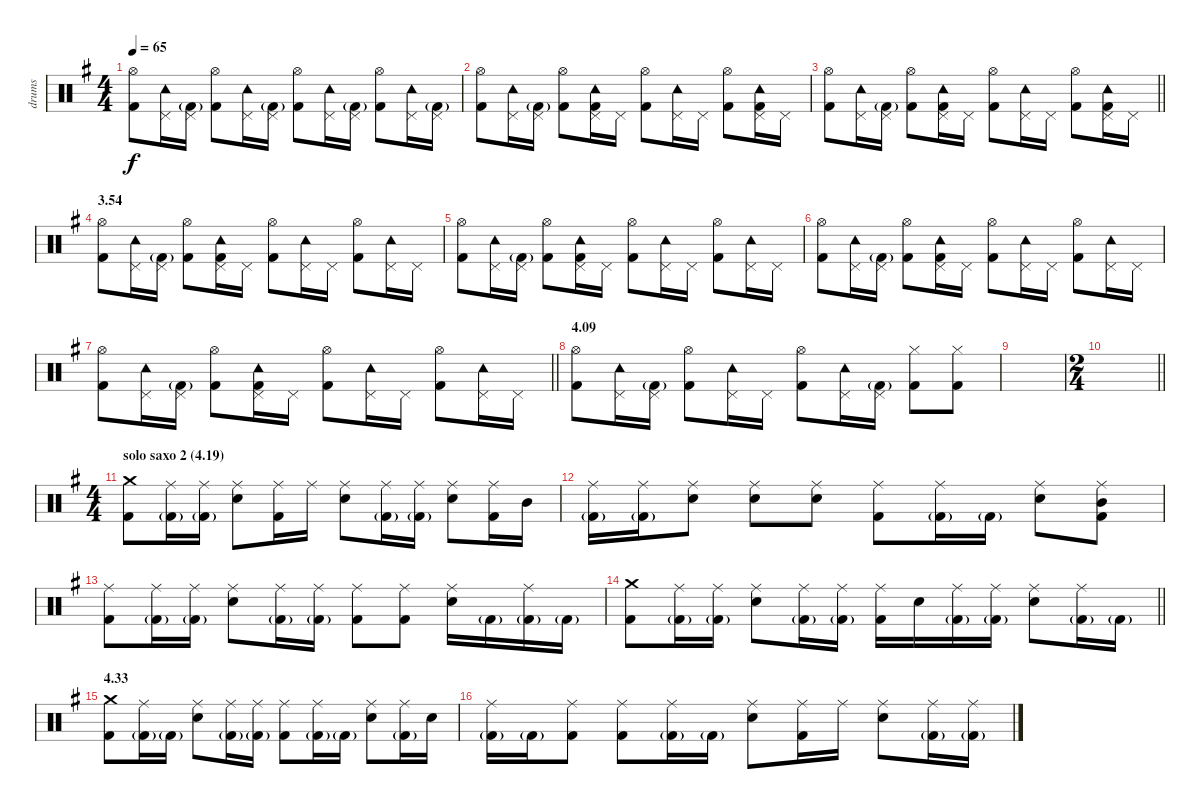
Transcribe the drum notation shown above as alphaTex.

\track ("drums" "drums") {instrument percussion}
\staff {score}
\articulation defaults
\ts (4 4)
\tempo 65
\clef neutral
\ks g
("Hi-Hat (open)" "Kick (hit) 2").8{dy f} ("Pedal Hi-Hat (hit)" "Tambourine (hit)").16 ("Pedal Hi-Hat (hit)" "Kick (hit) 2"{g}).16 ("Hi-Hat (open)" "Kick (hit) 2").8 ("Pedal Hi-Hat (hit)" "Tambourine (hit)").16 ("Pedal Hi-Hat (hit)" "Kick (hit) 2"{g}).16 ("Hi-Hat (open)" "Kick (hit) 2").8 ("Pedal Hi-Hat (hit)" "Tambourine (hit)").16 ("Pedal Hi-Hat (hit)" "Kick (hit) 2"{g}).16 ("Hi-Hat (open)" "Kick (hit) 2").8 ("Pedal Hi-Hat (hit)" "Tambourine (hit)").16 ("Pedal Hi-Hat (hit)" "Kick (hit) 2"{g}).16 |
("Hi-Hat (open)" "Kick (hit) 2").8 ("Pedal Hi-Hat (hit)" "Tambourine (hit)").16 ("Pedal Hi-Hat (hit)" "Kick (hit) 2"{g}).16 ("Hi-Hat (open)" "Kick (hit) 2").8 ("Pedal Hi-Hat (hit)" "Tambourine (hit)" "Kick (hit) 2").16 "Pedal Hi-Hat (hit)".16 ("Hi-Hat (open)" "Kick (hit) 2").8 ("Pedal Hi-Hat (hit)" "Tambourine (hit)").16 "Pedal Hi-Hat (hit)".16 ("Hi-Hat (open)" "Kick (hit) 2").8 ("Pedal Hi-Hat (hit)" "Tambourine (hit)" "Kick (hit) 2").16 "Pedal Hi-Hat (hit)".16 |
\barLineRight lightlight
("Hi-Hat (open)" "Kick (hit) 2").8 ("Pedal Hi-Hat (hit)" "Tambourine (hit)").16 ("Pedal Hi-Hat (hit)" "Kick (hit) 2"{g}).16 ("Hi-Hat (open)" "Kick (hit) 2").8 ("Pedal Hi-Hat (hit)" "Tambourine (hit)" "Kick (hit) 2").16 "Pedal Hi-Hat (hit)".16 ("Hi-Hat (open)" "Kick (hit) 2").8 ("Pedal Hi-Hat (hit)" "Tambourine (hit)").16 "Pedal Hi-Hat (hit)".16 ("Hi-Hat (open)" "Kick (hit) 2").8 ("Pedal Hi-Hat (hit)" "Tambourine (hit)" "Kick (hit) 2").16 "Pedal Hi-Hat (hit)".16 |
\section ("" "3.54")
("Hi-Hat (open)" "Kick (hit) 2").8 ("Pedal Hi-Hat (hit)" "Tambourine (hit)").16 ("Pedal Hi-Hat (hit)" "Kick (hit) 2"{g}).16 ("Hi-Hat (open)" "Kick (hit) 2").8 ("Pedal Hi-Hat (hit)" "Tambourine (hit)" "Kick (hit) 2").16 "Pedal Hi-Hat (hit)".16 ("Hi-Hat (open)" "Kick (hit) 2").8 ("Pedal Hi-Hat (hit)" "Tambourine (hit)").16 "Pedal Hi-Hat (hit)".16 ("Hi-Hat (open)" "Kick (hit) 2").8 ("Pedal Hi-Hat (hit)" "Tambourine (hit)").16 "Pedal Hi-Hat (hit)".16 |
("Hi-Hat (open)" "Kick (hit) 2").8 ("Pedal Hi-Hat (hit)" "Tambourine (hit)").16 ("Pedal Hi-Hat (hit)" "Kick (hit) 2"{g}).16 ("Hi-Hat (open)" "Kick (hit) 2").8 ("Pedal Hi-Hat (hit)" "Tambourine (hit)" "Kick (hit) 2").16 "Pedal Hi-Hat (hit)".16 ("Hi-Hat (open)" "Kick (hit) 2").8 ("Pedal Hi-Hat (hit)" "Tambourine (hit)").16 "Pedal Hi-Hat (hit)".16 ("Hi-Hat (open)" "Kick (hit) 2").8 ("Pedal Hi-Hat (hit)" "Tambourine (hit)").16 "Pedal Hi-Hat (hit)".16 |
("Hi-Hat (open)" "Kick (hit) 2").8 ("Pedal Hi-Hat (hit)" "Tambourine (hit)").16 ("Pedal Hi-Hat (hit)" "Kick (hit) 2"{g}).16 ("Hi-Hat (open)" "Kick (hit) 2").8 ("Pedal Hi-Hat (hit)" "Tambourine (hit)" "Kick (hit) 2").16 "Pedal Hi-Hat (hit)".16 ("Hi-Hat (open)" "Kick (hit) 2").8 ("Pedal Hi-Hat (hit)" "Tambourine (hit)").16 "Pedal Hi-Hat (hit)".16 ("Hi-Hat (open)" "Kick (hit) 2").8 ("Pedal Hi-Hat (hit)" "Tambourine (hit)").16 "Pedal Hi-Hat (hit)".16 |
\barLineRight lightlight
("Hi-Hat (open)" "Kick (hit) 2").8 ("Pedal Hi-Hat (hit)" "Tambourine (hit)").16 ("Pedal Hi-Hat (hit)" "Kick (hit) 2"{g}).16 ("Hi-Hat (open)" "Kick (hit) 2").8 ("Pedal Hi-Hat (hit)" "Tambourine (hit)" "Kick (hit) 2").16 "Pedal Hi-Hat (hit)".16 ("Hi-Hat (open)" "Kick (hit) 2").8 ("Pedal Hi-Hat (hit)" "Tambourine (hit)").16 "Pedal Hi-Hat (hit)".16 ("Hi-Hat (open)" "Kick (hit) 2").8 ("Pedal Hi-Hat (hit)" "Tambourine (hit)").16 "Pedal Hi-Hat (hit)".16 |
\section ("" "4.09")
("Hi-Hat (open)" "Kick (hit) 2").8 ("Pedal Hi-Hat (hit)" "Tambourine (hit)").16 ("Pedal Hi-Hat (hit)" "Kick (hit) 2"{g}).16 ("Hi-Hat (open)" "Kick (hit) 2").8 ("Pedal Hi-Hat (hit)" "Tambourine (hit)").16 "Pedal Hi-Hat (hit)".16 ("Hi-Hat (open)" "Kick (hit) 2").8 ("Pedal Hi-Hat (hit)" "Tambourine (hit)").16 ("Pedal Hi-Hat (hit)" "Kick (hit) 2"{g}).16 ("Hi-Hat (closed)" "Kick (hit) 2").8 ("Hi-Hat (closed)" "Kick (hit) 2").8 |
|
\ts (2 4)
\barLineRight lightlight
|
\ts (4 4)
\section ("" "solo saxo 2 (4.19)")
("Crash medium (hit)" "Kick (hit) 2").8 ("Ride (middle)" "Kick (hit) 2"{g}).16 ("Ride (middle)" "Kick (hit) 2"{g}).16 ("Ride (middle)" "Electric Snare (hit)").8 ("Ride (middle)" "Kick (hit) 2").16 "Ride (middle)".16 ("Ride (middle)" "Electric Snare (hit)").8 ("Ride (middle)" "Kick (hit) 2"{g}).16 ("Ride (middle)" "Kick (hit) 2"{g}).16 ("Ride (middle)" "Electric Snare (hit)").8 ("Ride (middle)" "Kick (hit) 2").16 "Mid Tom (hit)".16 |
("Ride (middle)" "Kick (hit) 2"{g}).16 ("Ride (middle)" "Kick (hit) 2"{g}).16 ("Ride (middle)" "Electric Snare (hit)").8 ("Ride (middle)" "Electric Snare (hit)").8 ("Ride (middle)" "Electric Snare (hit)").8 ("Ride (middle)" "Kick (hit) 2").8 ("Ride (middle)" "Kick (hit) 2"{g}).16 "Kick (hit) 2"{g}.16 ("Ride (middle)" "Electric Snare (hit)").8 ("Ride (middle)" "Mid Tom (hit)" "Kick (hit) 2").8 |
("Ride (middle)" "Kick (hit) 2").8 ("Ride (middle)" "Kick (hit) 2"{g}).16 ("Ride (middle)" "Kick (hit) 2"{g}).16 ("Ride (middle)" "Electric Snare (hit)").8 ("Ride (middle)" "Kick (hit) 2"{g}).16 ("Ride (middle)" "Kick (hit) 2"{g}).16 ("Ride (middle)" "Kick (hit) 2").8 ("Ride (middle)" "Kick (hit) 2").8 ("Ride (middle)" "Electric Snare (hit)").16 "Kick (hit) 2"{g}.16 ("Ride (middle)" "Kick (hit) 2"{g}).16 "Kick (hit) 2"{g}.16 |
\barLineRight lightlight
("Crash medium (hit)" "Kick (hit) 2").8 ("Ride (middle)" "Kick (hit) 2"{g}).16 ("Ride (middle)" "Kick (hit) 2"{g}).16 ("Ride (middle)" "Electric Snare (hit)").8 ("Ride (middle)" "Kick (hit) 2"{g}).16 ("Ride (middle)" "Kick (hit) 2"{g}).16 ("Ride (middle)" "Kick (hit) 2").16 "Electric Snare (hit)".16 ("Ride (middle)" "Kick (hit) 2"{g}).16 ("Ride (middle)" "Kick (hit) 2"{g}).16 ("Ride (middle)" "Electric Snare (hit)").8 ("Ride (middle)" "Kick (hit) 2"{g}).16 "Kick (hit) 2"{g}.16 |
\section ("" "4.33")
("Crash medium (hit)" "Kick (hit) 2").8 ("Ride (middle)" "Kick (hit) 2"{g}).16 "Kick (hit) 2"{g}.16 ("Ride (middle)" "Electric Snare (hit)").8 ("Ride (middle)" "Kick (hit) 2"{g}).16 ("Ride (middle)" "Kick (hit) 2"{g}).16 ("Ride (middle)" "Kick (hit) 2").8 ("Ride (middle)" "Kick (hit) 2"{g}).16 "Kick (hit) 2"{g}.16 ("Ride (middle)" "Electric Snare (hit)").8 ("Ride (middle)" "Kick (hit) 2"{g}).16 "Electric Snare (hit)".16 |
("Ride (middle)" "Kick (hit) 2"{g}).16 "Kick (hit) 2"{g}.16 ("Ride (middle)" "Kick (hit) 2").8 ("Ride (middle)" "Kick (hit) 2").8 ("Ride (middle)" "Kick (hit) 2"{g}).16 "Kick (hit) 2"{g}.16 ("Ride (middle)" "Electric Snare (hit)").8 ("Ride (middle)" "Kick (hit) 2").16 "Ride (middle)".16 ("Ride (middle)" "Electric Snare (hit)").8 ("Ride (middle)" "Kick (hit) 2"{g}).16 ("Ride (middle)" "Kick (hit) 2"{g}).16
